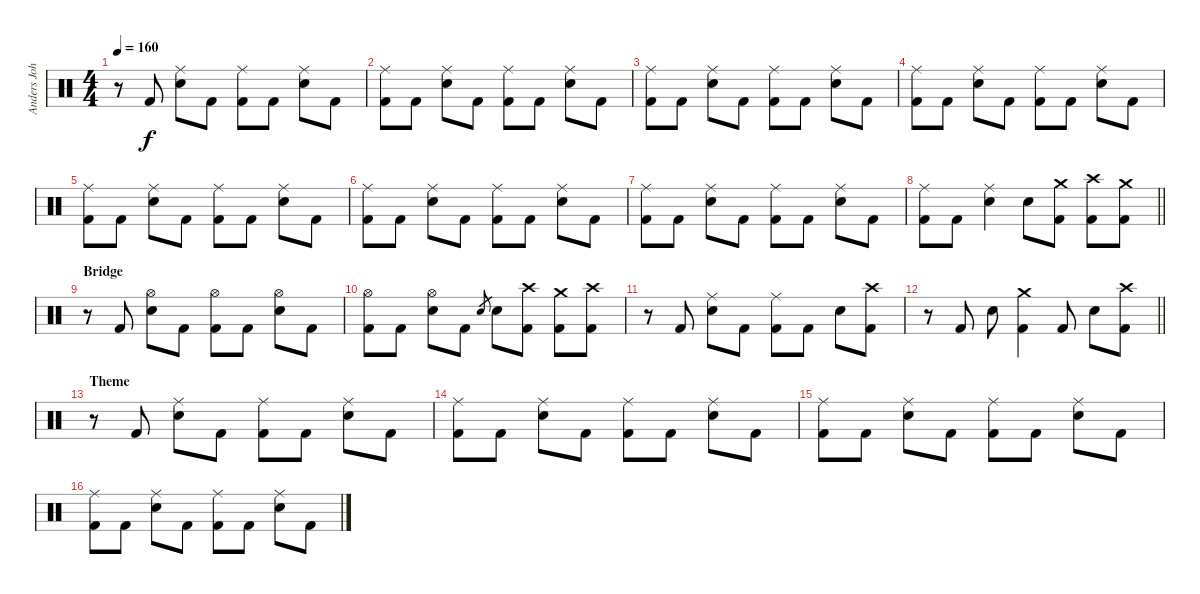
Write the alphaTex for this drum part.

\track ("Anders Johansson" "Anders Joh") {instrument percussion}
\staff {score}
\articulation defaults
\ts (4 4)
\tempo 160
\clef neutral
\ks c
r.8{dy f} "Kick (hit) 2".8 ("Ride (middle)" "Snare (hit) 2").8 "Kick (hit) 2".8 ("Ride (middle)" "Kick (hit) 2").8 "Kick (hit) 2".8 ("Ride (middle)" "Snare (hit) 2").8 "Kick (hit) 2".8 |
("Ride (middle)" "Kick (hit) 2").8 "Kick (hit) 2".8 ("Ride (middle)" "Snare (hit) 2").8 "Kick (hit) 2".8 ("Ride (middle)" "Kick (hit) 2").8 "Kick (hit) 2".8 ("Ride (middle)" "Snare (hit) 2").8 "Kick (hit) 2".8 |
("Ride (middle)" "Kick (hit) 2").8 "Kick (hit) 2".8 ("Ride (middle)" "Snare (hit) 2").8 "Kick (hit) 2".8 ("Ride (middle)" "Kick (hit) 2").8 "Kick (hit) 2".8 ("Ride (middle)" "Snare (hit) 2").8 "Kick (hit) 2".8 |
("Ride (middle)" "Kick (hit) 2").8 "Kick (hit) 2".8 ("Ride (middle)" "Snare (hit) 2").8 "Kick (hit) 2".8 ("Ride (middle)" "Kick (hit) 2").8 "Kick (hit) 2".8 ("Ride (middle)" "Snare (hit) 2").8 "Kick (hit) 2".8 |
("Ride (middle)" "Kick (hit) 2").8 "Kick (hit) 2".8 ("Ride (middle)" "Snare (hit) 2").8 "Kick (hit) 2".8 ("Ride (middle)" "Kick (hit) 2").8 "Kick (hit) 2".8 ("Ride (middle)" "Snare (hit) 2").8 "Kick (hit) 2".8 |
("Ride (middle)" "Kick (hit) 2").8 "Kick (hit) 2".8 ("Ride (middle)" "Snare (hit) 2").8 "Kick (hit) 2".8 ("Ride (middle)" "Kick (hit) 2").8 "Kick (hit) 2".8 ("Ride (middle)" "Snare (hit) 2").8 "Kick (hit) 2".8 |
("Ride (middle)" "Kick (hit) 2").8 "Kick (hit) 2".8 ("Ride (middle)" "Snare (hit) 2").8 "Kick (hit) 2".8 ("Ride (middle)" "Kick (hit) 2").8 "Kick (hit) 2".8 ("Ride (middle)" "Snare (hit) 2").8 "Kick (hit) 2".8 |
\barLineRight lightlight
("Ride (middle)" "Kick (hit) 2").8 "Kick (hit) 2".8 ("Ride (middle)" "Snare (hit) 2").4 "Snare (hit) 2".8 ("Crash medium (hit)" "Kick (hit) 2").8 ("Crash high (hit)" "Kick (hit) 2").8 ("Crash medium (hit)" "Kick (hit) 2").8 |
\section ("" "Bridge")
r.8 "Kick (hit) 2".8 ("Hi-Hat (open)" "Snare (hit) 2").8 "Kick (hit) 2".8 ("Hi-Hat (open)" "Kick (hit) 2").8 "Kick (hit) 2".8 ("Hi-Hat (open)" "Snare (hit) 2").8 "Kick (hit) 2".8 |
("Hi-Hat (open)" "Kick (hit) 2").8 "Kick (hit) 2".8 ("Hi-Hat (open)" "Snare (hit) 2").8 "Kick (hit) 2".8 "Snare (hit) 2".8{gr} "Snare (hit) 2".8 ("Crash high (hit)" "Kick (hit) 2").8 ("Crash medium (hit)" "Kick (hit) 2").8 ("Crash high (hit)" "Kick (hit) 2").8 |
r.8 "Kick (hit) 2".8 ("Ride (middle)" "Snare (hit) 2").8 "Kick (hit) 2".8 ("Ride (middle)" "Kick (hit) 2").8 "Kick (hit) 2".8 "Snare (hit) 2".8 ("Crash high (hit)" "Kick (hit) 2").8 |
\barLineRight lightlight
r.8 "Kick (hit) 2".8 "Snare (hit) 2".8 ("Crash medium (hit)" "Kick (hit) 2").4 "Kick (hit) 2".8 "Snare (hit) 2".8 ("Crash high (hit)" "Kick (hit) 2").8 |
\section ("" "Theme")
r.8 "Kick (hit) 2".8 ("Ride (middle)" "Snare (hit) 2").8 "Kick (hit) 2".8 ("Ride (middle)" "Kick (hit) 2").8 "Kick (hit) 2".8 ("Ride (middle)" "Snare (hit) 2").8 "Kick (hit) 2".8 |
("Ride (middle)" "Kick (hit) 2").8 "Kick (hit) 2".8 ("Ride (middle)" "Snare (hit) 2").8 "Kick (hit) 2".8 ("Ride (middle)" "Kick (hit) 2").8 "Kick (hit) 2".8 ("Ride (middle)" "Snare (hit) 2").8 "Kick (hit) 2".8 |
("Ride (middle)" "Kick (hit) 2").8 "Kick (hit) 2".8 ("Ride (middle)" "Snare (hit) 2").8 "Kick (hit) 2".8 ("Ride (middle)" "Kick (hit) 2").8 "Kick (hit) 2".8 ("Ride (middle)" "Snare (hit) 2").8 "Kick (hit) 2".8 |
("Ride (middle)" "Kick (hit) 2").8 "Kick (hit) 2".8 ("Ride (middle)" "Snare (hit) 2").8 "Kick (hit) 2".8 ("Ride (middle)" "Kick (hit) 2").8 "Kick (hit) 2".8 ("Ride (middle)" "Snare (hit) 2").8 "Kick (hit) 2".8
